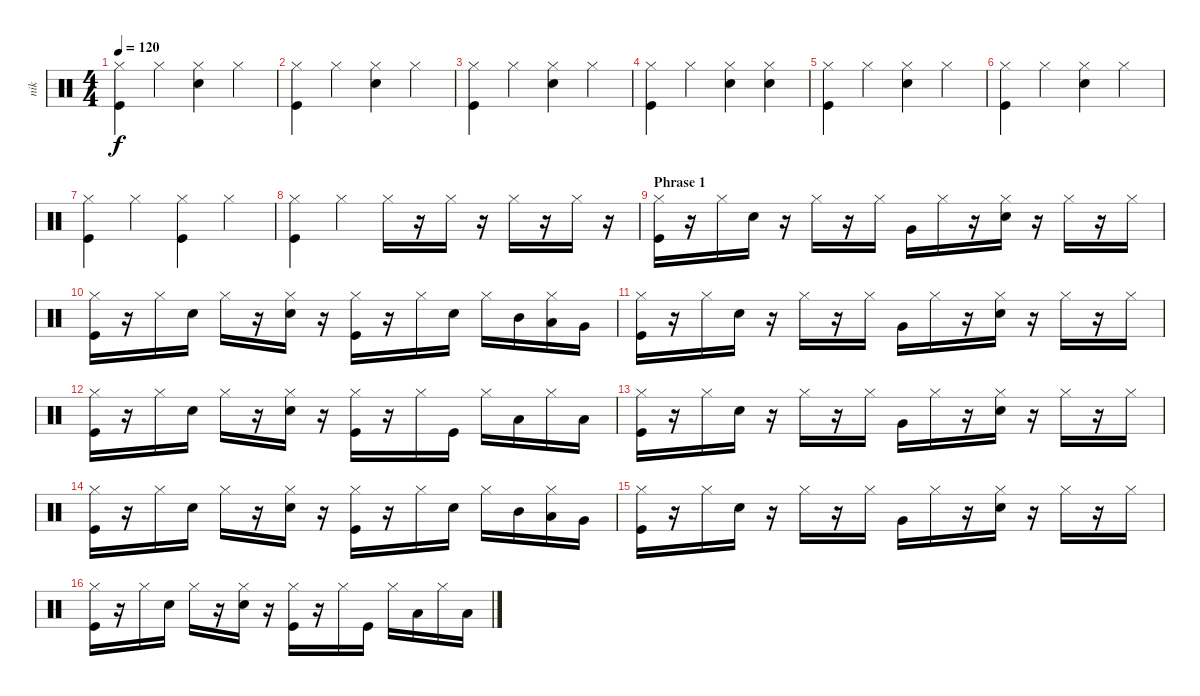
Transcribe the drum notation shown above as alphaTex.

\track ("nik" "nik") {instrument percussion}
\staff {score}
\articulation defaults
\ts (4 4)
\tempo 120
\clef neutral
\ks c
("Hi-Hat (closed)" "Kick (hit)").4{dy f} "Hi-Hat (closed)".4 ("Hi-Hat (closed)" "Electric Snare (hit)").4 "Hi-Hat (closed)".4 |
("Hi-Hat (closed)" "Kick (hit)").4 "Hi-Hat (closed)".4 ("Hi-Hat (closed)" "Electric Snare (hit)").4 "Hi-Hat (closed)".4 |
("Hi-Hat (closed)" "Kick (hit)").4 "Hi-Hat (closed)".4 ("Hi-Hat (closed)" "Electric Snare (hit)").4 "Hi-Hat (closed)".4 |
("Hi-Hat (closed)" "Kick (hit)").4 "Hi-Hat (closed)".4 ("Hi-Hat (closed)" "Electric Snare (hit)").4 ("Hi-Hat (closed)" "Electric Snare (hit)").4 |
("Hi-Hat (closed)" "Kick (hit)").4 "Hi-Hat (closed)".4 ("Hi-Hat (closed)" "Electric Snare (hit)").4 "Hi-Hat (closed)".4 |
("Hi-Hat (closed)" "Kick (hit)").4 "Hi-Hat (closed)".4 ("Hi-Hat (closed)" "Electric Snare (hit)").4 "Hi-Hat (closed)".4 |
("Hi-Hat (closed)" "Kick (hit)").4 "Hi-Hat (closed)".4 ("Hi-Hat (closed)" "Kick (hit)").4 "Hi-Hat (closed)".4 |
("Hi-Hat (closed)" "Kick (hit)").4 "Hi-Hat (closed)".4 "Hi-Hat (closed)".16 r.16 "Hi-Hat (closed)".16 r.16 "Hi-Hat (closed)".16 r.16 "Hi-Hat (closed)".16 r.16 |
\section ("" "Phrase 1")
("Hi-Hat (closed)" "Kick (hit)").16 r.16 "Hi-Hat (closed)".16 "Electric Snare (hit)".16 r.16 "Hi-Hat (closed)".16 r.16 "Hi-Hat (closed)".16 "Very Low Tom (hit)".16 "Hi-Hat (closed)".16 r.16 ("Hi-Hat (closed)" "Electric Snare (hit)").16 r.16 "Hi-Hat (closed)".16 r.16 "Hi-Hat (closed)".16 |
("Hi-Hat (closed)" "Kick (hit)").16 r.16 "Hi-Hat (closed)".16 "Electric Snare (hit)".16 "Hi-Hat (closed)".16 r.16 ("Hi-Hat (closed)" "Electric Snare (hit)").16 r.16 ("Hi-Hat (closed)" "Kick (hit)").16 r.16 "Hi-Hat (closed)".16 "Electric Snare (hit)".16 "Hi-Hat (closed)".16 "Mid Tom (hit)".16 ("Hi-Hat (closed)" "Low Tom (hit)").16 "Very Low Tom (hit)".16 |
("Hi-Hat (closed)" "Kick (hit)").16 r.16 "Hi-Hat (closed)".16 "Electric Snare (hit)".16 r.16 "Hi-Hat (closed)".16 r.16 "Hi-Hat (closed)".16 "Very Low Tom (hit)".16 "Hi-Hat (closed)".16 r.16 ("Hi-Hat (closed)" "Electric Snare (hit)").16 r.16 "Hi-Hat (closed)".16 r.16 "Hi-Hat (closed)".16 |
("Hi-Hat (closed)" "Kick (hit)").16 r.16 "Hi-Hat (closed)".16 "Electric Snare (hit)".16 "Hi-Hat (closed)".16 r.16 ("Hi-Hat (closed)" "Electric Snare (hit)").16 r.16 ("Hi-Hat (closed)" "Kick (hit)").16 r.16 "Hi-Hat (closed)".16 "Kick (hit)".16 "Hi-Hat (closed)".16 "Low Tom (hit)".16 "Hi-Hat (closed)".16 "Low Tom (hit)".16 |
("Hi-Hat (closed)" "Kick (hit)").16 r.16 "Hi-Hat (closed)".16 "Electric Snare (hit)".16 r.16 "Hi-Hat (closed)".16 r.16 "Hi-Hat (closed)".16 "Very Low Tom (hit)".16 "Hi-Hat (closed)".16 r.16 ("Hi-Hat (closed)" "Electric Snare (hit)").16 r.16 "Hi-Hat (closed)".16 r.16 "Hi-Hat (closed)".16 |
("Hi-Hat (closed)" "Kick (hit)").16 r.16 "Hi-Hat (closed)".16 "Electric Snare (hit)".16 "Hi-Hat (closed)".16 r.16 ("Hi-Hat (closed)" "Electric Snare (hit)").16 r.16 ("Hi-Hat (closed)" "Kick (hit)").16 r.16 "Hi-Hat (closed)".16 "Electric Snare (hit)".16 "Hi-Hat (closed)".16 "Mid Tom (hit)".16 ("Hi-Hat (closed)" "Low Tom (hit)").16 "Very Low Tom (hit)".16 |
("Hi-Hat (closed)" "Kick (hit)").16 r.16 "Hi-Hat (closed)".16 "Electric Snare (hit)".16 r.16 "Hi-Hat (closed)".16 r.16 "Hi-Hat (closed)".16 "Very Low Tom (hit)".16 "Hi-Hat (closed)".16 r.16 ("Hi-Hat (closed)" "Electric Snare (hit)").16 r.16 "Hi-Hat (closed)".16 r.16 "Hi-Hat (closed)".16 |
("Hi-Hat (closed)" "Kick (hit)").16 r.16 "Hi-Hat (closed)".16 "Electric Snare (hit)".16 "Hi-Hat (closed)".16 r.16 ("Hi-Hat (closed)" "Electric Snare (hit)").16 r.16 ("Hi-Hat (closed)" "Kick (hit)").16 r.16 "Hi-Hat (closed)".16 "Kick (hit)".16 "Hi-Hat (closed)".16 "Low Tom (hit)".16 "Hi-Hat (closed)".16 "Low Tom (hit)".16
